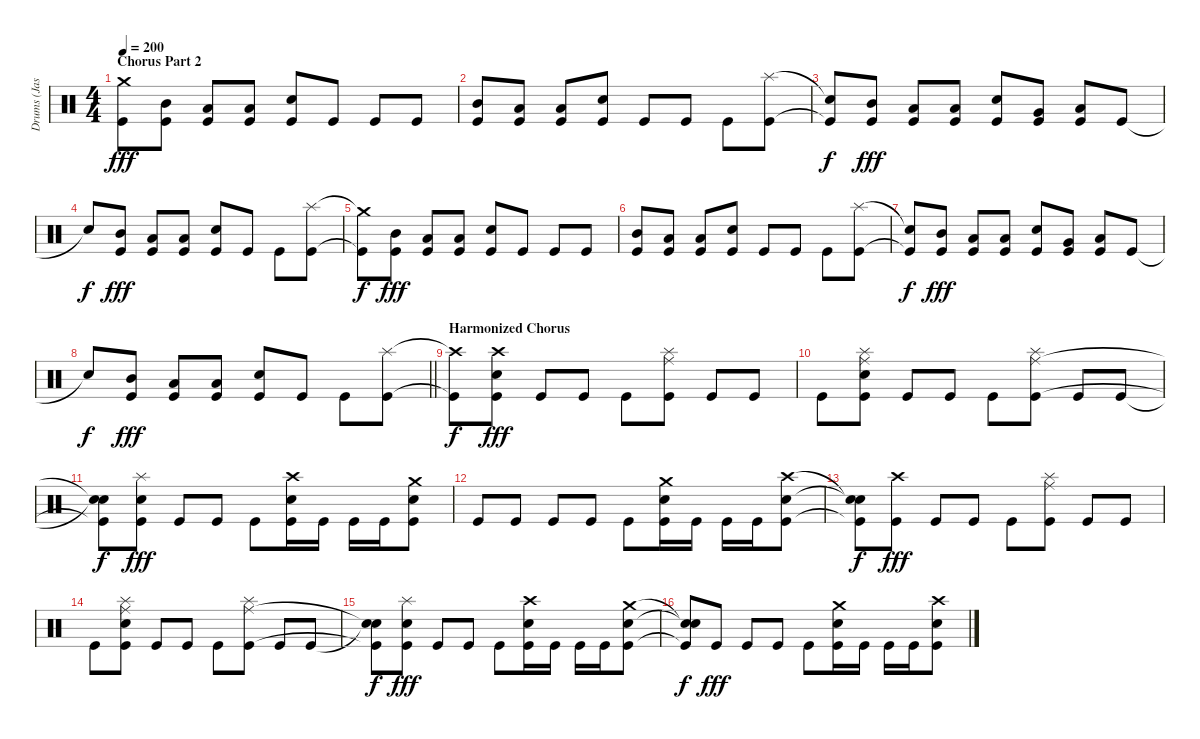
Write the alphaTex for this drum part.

\track ("Drums (Jason Costa)" "Drums (Jas") {instrument percussion}
\staff {score}
\articulation defaults
\ts (4 4)
\section ("" "Chorus Part 2")
\tempo 200
\clef neutral
\ks c
("Crash medium (hit)" "Kick (hit)").8{dy fff} ("Mid Tom (hit)" "Kick (hit)").8 ("Low Tom (hit)" "Kick (hit)").8 ("Low Floor Tom (hit)" "Kick (hit)").8 ("Electric Snare (hit)" "Kick (hit)").8 "Kick (hit)".8 "Kick (hit)".8 "Kick (hit)".8 |
("Mid Tom (hit)" "Kick (hit)").8 ("Low Tom (hit)" "Kick (hit)").8 ("Low Floor Tom (hit)" "Kick (hit)").8 ("Electric Snare (hit)" "Kick (hit)").8 "Kick (hit)".8 "Kick (hit)".8 "Kick (hit)".8 ("Splash (hit)" "Kick (hit)").8 |
("Snare (hit)"{t} "Kick (hit)"{t}).8{dy f} ("Mid Tom (hit)" "Kick (hit)").8{dy fff} ("Low Tom (hit)" "Kick (hit)").8 ("Low Floor Tom (hit)" "Kick (hit)").8 ("Electric Snare (hit)" "Kick (hit)").8 ("Very Low Tom (hit)" "Kick (hit)").8 ("Low Floor Tom (hit)" "Kick (hit)").8 "Kick (hit)".8 |
"Snare (hit)"{t}.8{dy f} ("Mid Tom (hit)" "Kick (hit)").8{dy fff} ("Low Tom (hit)" "Kick (hit)").8 ("Low Floor Tom (hit)" "Kick (hit)").8 ("Electric Snare (hit)" "Kick (hit)").8 "Kick (hit)".8 "Kick (hit)".8 ("Splash (hit)" "Kick (hit)").8 |
("Crash medium (hit)"{t} "Kick (hit)"{t}).8{dy f} ("Mid Tom (hit)" "Kick (hit)").8{dy fff} ("Low Tom (hit)" "Kick (hit)").8 ("Low Floor Tom (hit)" "Kick (hit)").8 ("Electric Snare (hit)" "Kick (hit)").8 "Kick (hit)".8 "Kick (hit)".8 "Kick (hit)".8 |
("Mid Tom (hit)" "Kick (hit)").8 ("Low Tom (hit)" "Kick (hit)").8 ("Low Floor Tom (hit)" "Kick (hit)").8 ("Electric Snare (hit)" "Kick (hit)").8 "Kick (hit)".8 "Kick (hit)".8 "Kick (hit)".8 ("Splash (hit)" "Kick (hit)").8 |
("Snare (hit)"{t} "Kick (hit)"{t}).8{dy f} ("Mid Tom (hit)" "Kick (hit)").8{dy fff} ("Low Tom (hit)" "Kick (hit)").8 ("Low Floor Tom (hit)" "Kick (hit)").8 ("Electric Snare (hit)" "Kick (hit)").8 ("Very Low Tom (hit)" "Kick (hit)").8 ("Low Floor Tom (hit)" "Kick (hit)").8 "Kick (hit)".8 |
\barLineRight lightlight "Snare (hit)"{t}.8{dy f}
("Mid Tom (hit)" "Kick (hit)").8{dy fff} ("Low Tom (hit)" "Kick (hit)").8 ("Low Floor Tom (hit)" "Kick (hit)").8 ("Electric Snare (hit)" "Kick (hit)").8 "Kick (hit)".8 "Kick (hit)".8 ("Splash (hit)" "Kick (hit)").8 |
\section ("" "Harmonized Chorus")
("Crash high (hit)"{t} "Kick (hit)"{t}).8{dy f} ("Crash high (hit)" "Electric Snare (hit)" "Kick (hit)").8{dy fff} "Kick (hit)".8 "Kick (hit)".8 "Kick (hit)".8 ("Splash (hit)" "Ride (middle)" "Kick (hit)").8 "Kick (hit)".8 "Kick (hit)".8 |
"Kick (hit)".8 ("Splash (hit)" "Ride (middle)" "Electric Snare (hit)" "Kick (hit)").8 "Kick (hit)".8 "Kick (hit)".8 "Kick (hit)".8 ("Splash (hit)" "Ride (middle)" "Kick (hit)").8 "Kick (hit)".8 "Kick (hit)".8 |
("Snare (hit)"{t} "Snare (hit)"{t} "Kick (hit)"{t}).8{dy f} ("Splash (hit)" "Electric Snare (hit)" "Kick (hit)").8{dy fff} "Kick (hit)".8 "Kick (hit)".8 "Kick (hit)".8 ("Crash high (hit)" "Electric Snare (hit)" "Kick (hit)").16 "Kick (hit)".16 "Kick (hit)".16 "Kick (hit)".16 ("Crash medium (hit)" "Electric Snare (hit)" "Kick (hit)").8 |
"Kick (hit)".8 "Kick (hit)".8 "Kick (hit)".8 "Kick (hit)".8 "Kick (hit)".8 ("Crash medium (hit)" "Electric Snare (hit)" "Kick (hit)").16 "Kick (hit)".16 "Kick (hit)".16 "Kick (hit)".16 ("Crash high (hit)" "Electric Snare (hit)" "Kick (hit)").8 |
("Snare (hit)"{t} "Snare (hit)"{t} "Kick (hit)"{t}).8{dy f} ("Crash high (hit)" "Kick (hit)").8{dy fff} "Kick (hit)".8 "Kick (hit)".8 "Kick (hit)".8 ("Splash (hit)" "Ride (middle)" "Kick (hit)").8 "Kick (hit)".8 "Kick (hit)".8 |
"Kick (hit)".8 ("Splash (hit)" "Ride (middle)" "Electric Snare (hit)" "Kick (hit)").8 "Kick (hit)".8 "Kick (hit)".8 "Kick (hit)".8 ("Splash (hit)" "Ride (middle)" "Kick (hit)").8 "Kick (hit)".8 "Kick (hit)".8 |
("Snare (hit)"{t} "Snare (hit)"{t} "Kick (hit)"{t}).8{dy f} ("Splash (hit)" "Electric Snare (hit)" "Kick (hit)").8{dy fff} "Kick (hit)".8 "Kick (hit)".8 "Kick (hit)".8 ("Crash high (hit)" "Electric Snare (hit)" "Kick (hit)").16 "Kick (hit)".16 "Kick (hit)".16 "Kick (hit)".16 ("Crash medium (hit)" "Electric Snare (hit)" "Kick (hit)").8 |
("Snare (hit)"{t} "Snare (hit)"{t} "Kick (hit)"{t}).8{dy f} "Kick (hit)".8{dy fff} "Kick (hit)".8 "Kick (hit)".8 "Kick (hit)".8 ("Crash medium (hit)" "Electric Snare (hit)" "Kick (hit)").16 "Kick (hit)".16 "Kick (hit)".16 "Kick (hit)".16 ("Crash high (hit)" "Electric Snare (hit)" "Kick (hit)").8
